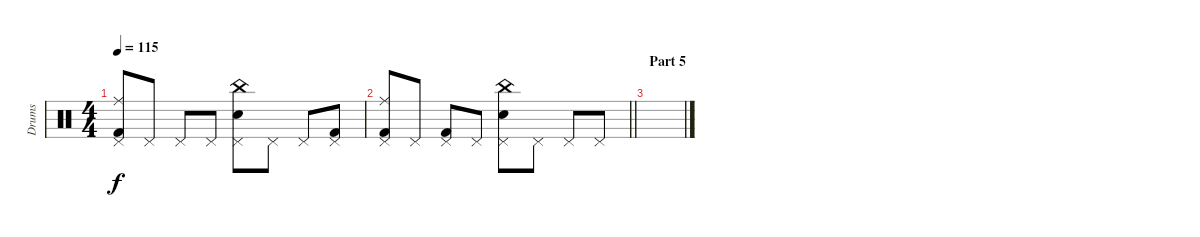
\track ("Drums" "Drums") {instrument percussion}
\staff {score}
\articulation defaults
\ts (4 4)
\tempo 115
\clef neutral
\ks c
("Pedal Hi-Hat (hit)" "Ride (middle)" "Kick (hit) 2").8{dy f} "Pedal Hi-Hat (hit)".8 "Pedal Hi-Hat (hit)".8 "Pedal Hi-Hat (hit)".8 ("Pedal Hi-Hat (hit)" "Electric Snare (hit)" "China (hit)").8 "Pedal Hi-Hat (hit)".8 "Pedal Hi-Hat (hit)".8 ("Pedal Hi-Hat (hit)" "Kick (hit) 2").8 |
\barLineRight lightlight
("Pedal Hi-Hat (hit)" "Ride (middle)" "Kick (hit) 2").8 "Pedal Hi-Hat (hit)".8 ("Pedal Hi-Hat (hit)" "Kick (hit) 2").8 "Pedal Hi-Hat (hit)".8 ("Pedal Hi-Hat (hit)" "Electric Snare (hit)" "China (hit)").8 "Pedal Hi-Hat (hit)".8 "Pedal Hi-Hat (hit)".8 "Pedal Hi-Hat (hit)".8 |
\section ("" "Part 5")
